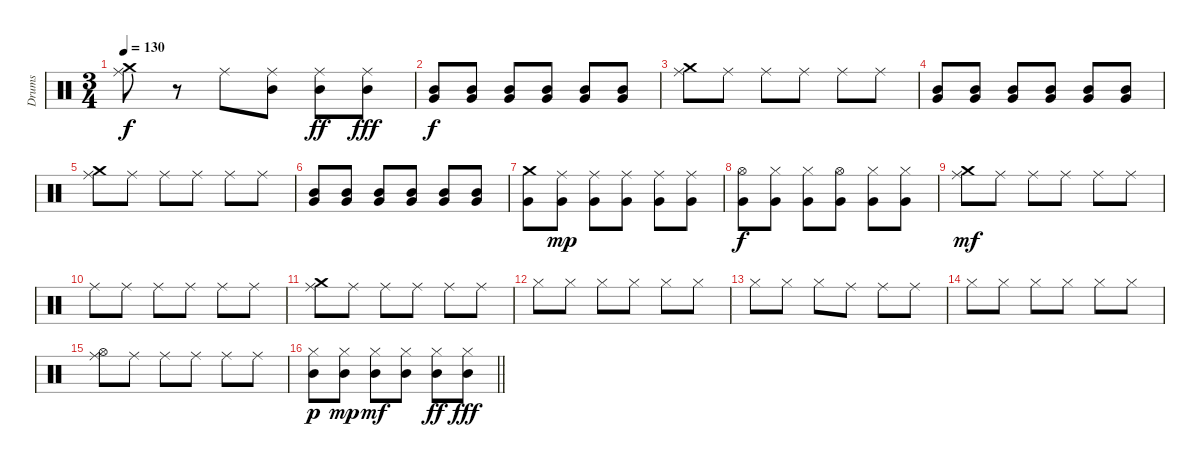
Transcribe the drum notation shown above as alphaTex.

\track ("Drums" "Drums") {instrument percussion}
\staff {score}
\articulation defaults
\ts (3 4)
\section ("" "")
\tempo 130
\clef neutral
\ks c
("Crash medium (hit)" "Ride (middle)").8{dy f} r.8 "Ride (middle)".8 ("Ride (middle)" "Mid Tom (hit)").8 ("Ride (middle)" "Mid Tom (hit)").8{dy ff} ("Ride (middle)" "Mid Tom (hit)").8{dy fff} |
("Mid Tom (hit)" "Very Low Tom (hit)").8{dy f} ("Mid Tom (hit)" "Very Low Tom (hit)").8 ("Mid Tom (hit)" "Very Low Tom (hit)").8 ("Mid Tom (hit)" "Very Low Tom (hit)").8 ("Mid Tom (hit)" "Very Low Tom (hit)").8 ("Mid Tom (hit)" "Very Low Tom (hit)").8 |
("Crash medium (hit)" "Ride (middle)").8 "Ride (middle)".8 "Ride (middle)".8 "Ride (middle)".8 "Ride (middle)".8 "Ride (middle)".8 |
("Mid Tom (hit)" "Very Low Tom (hit)").8 ("Mid Tom (hit)" "Very Low Tom (hit)").8 ("Mid Tom (hit)" "Very Low Tom (hit)").8 ("Mid Tom (hit)" "Very Low Tom (hit)").8 ("Mid Tom (hit)" "Very Low Tom (hit)").8 ("Mid Tom (hit)" "Very Low Tom (hit)").8 |
("Crash medium (hit)" "Ride (middle)").8 "Ride (middle)".8 "Ride (middle)".8 "Ride (middle)".8 "Ride (middle)".8 "Ride (middle)".8 |
("Mid Tom (hit)" "Very Low Tom (hit)").8 ("Mid Tom (hit)" "Very Low Tom (hit)").8 ("Mid Tom (hit)" "Very Low Tom (hit)").8 ("Mid Tom (hit)" "Very Low Tom (hit)").8 ("Mid Tom (hit)" "Very Low Tom (hit)").8 ("Mid Tom (hit)" "Very Low Tom (hit)").8 |
("Crash medium (hit)" "Very Low Tom (hit)").8 ("Ride (middle)" "Very Low Tom (hit)").8{dy mp} ("Ride (middle)" "Very Low Tom (hit)").8 ("Ride (middle)" "Very Low Tom (hit)").8 ("Ride (middle)" "Very Low Tom (hit)").8 ("Ride (middle)" "Very Low Tom (hit)").8 |
("Hi-Hat (open)" "Very Low Tom (hit)").8{dy f} ("Hi-Hat (closed)" "Very Low Tom (hit)").8 ("Hi-Hat (closed)" "Very Low Tom (hit)").8 ("Hi-Hat (open)" "Very Low Tom (hit)").8 ("Hi-Hat (closed)" "Very Low Tom (hit)").8 ("Hi-Hat (closed)" "Very Low Tom (hit)").8 |
("Crash medium (hit)" "Ride (middle)").8{dy mf} "Ride (middle)".8 "Ride (middle)".8 "Ride (middle)".8 "Ride (middle)".8 "Ride (middle)".8 |
"Ride (middle)".8 "Ride (middle)".8 "Ride (middle)".8 "Ride (middle)".8 "Ride (middle)".8 "Ride (middle)".8 |
("Crash medium (hit)" "Ride (middle)").8 "Ride (middle)".8 "Ride (middle)".8 "Ride (middle)".8 "Ride (middle)".8 "Ride (middle)".8 |
"Hi-Hat (closed)".8 "Hi-Hat (closed)".8 "Hi-Hat (closed)".8 "Hi-Hat (closed)".8 "Hi-Hat (closed)".8 "Hi-Hat (closed)".8 |
"Hi-Hat (closed)".8 "Hi-Hat (closed)".8 "Hi-Hat (closed)".8 "Ride (middle)".8 "Ride (middle)".8 "Ride (middle)".8 |
"Hi-Hat (closed)".8 "Hi-Hat (closed)".8 "Hi-Hat (closed)".8 "Hi-Hat (closed)".8 "Hi-Hat (closed)".8 "Hi-Hat (closed)".8 |
("Hi-Hat (open)" "Ride (middle)").8 "Ride (middle)".8 "Ride (middle)".8 "Ride (middle)".8 "Ride (middle)".8 "Ride (middle)".8 |
\barLineRight lightlight
("Hi-Hat (closed)" "Mid Tom (hit)").8{dy p} ("Hi-Hat (closed)" "Mid Tom (hit)").8{dy mp} ("Hi-Hat (closed)" "Mid Tom (hit)").8{dy mf} ("Hi-Hat (closed)" "Mid Tom (hit)").8 ("Hi-Hat (closed)" "Mid Tom (hit)").8{dy ff} ("Hi-Hat (closed)" "Mid Tom (hit)").8{dy fff}
